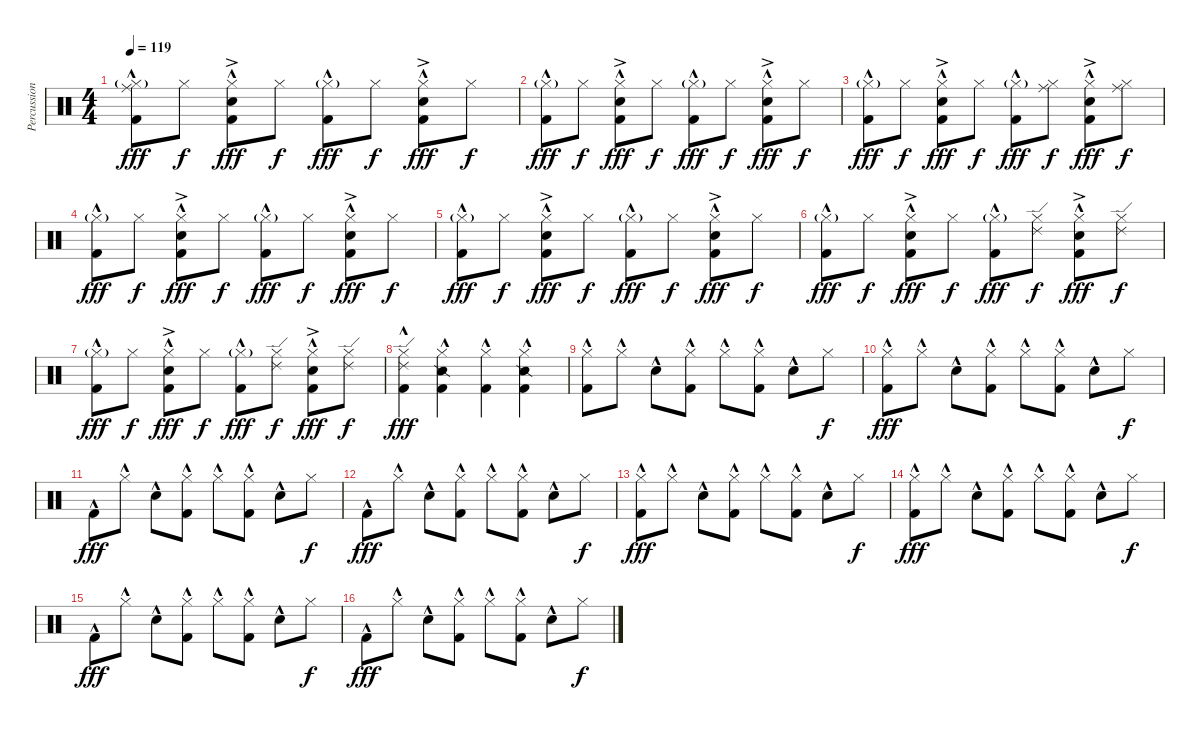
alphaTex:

\track ("Percussion" "Percussion") {instrument percussion}
\staff {score}
\articulation defaults
\ts (4 4)
\tempo 119
\clef neutral
\ks c
("Ride (middle)" "Hi-Hat (closed)"{g} "Kick (hit) 2"{hac}).8{dy fff} "Hi-Hat (closed)".8{dy f} ("Hi-Hat (closed)"{hac} "Electric Snare (hit)"{ac} "Kick (hit) 2"{hac}).8{dy fff} "Hi-Hat (closed)".8{dy f} ("Hi-Hat (closed)"{g} "Kick (hit) 2"{hac}).8{dy fff} "Hi-Hat (closed)".8{dy f} ("Hi-Hat (closed)"{hac} "Electric Snare (hit)"{ac} "Kick (hit) 2"{hac}).8{dy fff} "Hi-Hat (closed)".8{dy f} |
("Hi-Hat (closed)"{g} "Kick (hit) 2"{hac}).8{dy fff} "Hi-Hat (closed)".8{dy f} ("Hi-Hat (closed)"{hac} "Electric Snare (hit)"{ac} "Kick (hit) 2"{hac}).8{dy fff} "Hi-Hat (closed)".8{dy f} ("Hi-Hat (closed)"{g} "Kick (hit) 2"{hac}).8{dy fff} "Hi-Hat (closed)".8{dy f} ("Hi-Hat (closed)"{hac} "Electric Snare (hit)"{ac} "Kick (hit) 2"{hac}).8{dy fff} "Hi-Hat (closed)".8{dy f} |
("Hi-Hat (closed)"{g} "Kick (hit) 2"{hac}).8{dy fff} "Hi-Hat (closed)".8{dy f} ("Hi-Hat (closed)"{hac} "Electric Snare (hit)"{ac} "Kick (hit) 2"{hac}).8{dy fff} "Hi-Hat (closed)".8{dy f} ("Hi-Hat (closed)"{g} "Kick (hit) 2"{hac}).8{dy fff} ("Ride (middle)" "Hi-Hat (closed)").8{dy f} ("Hi-Hat (closed)"{hac} "Electric Snare (hit)"{ac} "Kick (hit) 2"{hac}).8{dy fff} ("Ride (middle)" "Hi-Hat (closed)").8{dy f} |
("Hi-Hat (closed)"{g} "Kick (hit) 2"{hac}).8{dy fff} "Hi-Hat (closed)".8{dy f} ("Hi-Hat (closed)"{hac} "Electric Snare (hit)"{ac} "Kick (hit) 2"{hac}).8{dy fff} "Hi-Hat (closed)".8{dy f} ("Hi-Hat (closed)"{g} "Kick (hit) 2"{hac}).8{dy fff} "Hi-Hat (closed)".8{dy f} ("Hi-Hat (closed)"{hac} "Electric Snare (hit)"{ac} "Kick (hit) 2"{hac}).8{dy fff} "Hi-Hat (closed)".8{dy f} |
("Hi-Hat (closed)"{g} "Kick (hit) 2"{hac}).8{dy fff} "Hi-Hat (closed)".8{dy f} ("Hi-Hat (closed)"{hac} "Electric Snare (hit)"{ac} "Kick (hit) 2"{hac}).8{dy fff} "Hi-Hat (closed)".8{dy f} ("Hi-Hat (closed)"{g} "Kick (hit) 2"{hac}).8{dy fff} "Hi-Hat (closed)".8{dy f} ("Hi-Hat (closed)"{hac} "Electric Snare (hit)"{ac} "Kick (hit) 2"{hac}).8{dy fff} "Hi-Hat (closed)".8{dy f} |
("Hi-Hat (closed)"{g} "Kick (hit) 2"{hac}).8{dy fff} "Hi-Hat (closed)".8{dy f} ("Hi-Hat (closed)"{hac} "Electric Snare (hit)"{ac} "Kick (hit) 2"{hac}).8{dy fff} "Hi-Hat (closed)".8{dy f} ("Hi-Hat (closed)"{g} "Kick (hit) 2"{hac}).8{dy fff} ("Ride (edge) 2" "Hi-Hat (closed)").8{dy f} ("Hi-Hat (closed)"{hac} "Electric Snare (hit)"{ac} "Kick (hit) 2"{hac}).8{dy fff} ("Ride (edge) 2" "Hi-Hat (closed)").8{dy f} |
("Hi-Hat (closed)"{g} "Kick (hit) 2"{hac}).8{dy fff} "Hi-Hat (closed)".8{dy f} ("Hi-Hat (closed)"{hac} "Electric Snare (hit)"{ac} "Kick (hit) 2"{hac}).8{dy fff} "Hi-Hat (closed)".8{dy f} ("Hi-Hat (closed)"{g} "Kick (hit) 2"{hac}).8{dy fff} ("Ride (edge) 2" "Hi-Hat (closed)").8{dy f} ("Hi-Hat (closed)"{hac} "Electric Snare (hit)"{ac} "Kick (hit) 2"{hac}).8{dy fff} ("Ride (edge) 2" "Hi-Hat (closed)").8{dy f} |
("Ride (edge) 2" "Hi-Hat (closed)" "Kick (hit) 2"{hac}).4{dy fff} ("Snare (side stick) 2"{hac} "Hi-Hat (closed)"{hac} "Kick (hit) 2"{hac}).4 ("Hi-Hat (closed)" "Kick (hit) 2"{hac}).4 ("Snare (side stick) 2"{hac} "Hi-Hat (closed)"{hac} "Kick (hit) 2"{hac}).4 |
("Hi-Hat (closed)" "Kick (hit) 2"{hac}).8 "Hi-Hat (closed)"{hac}.8 "Electric Snare (hit)"{hac}.8 ("Hi-Hat (closed)"{hac} "Kick (hit) 2"{hac}).8 "Hi-Hat (closed)"{hac}.8 ("Hi-Hat (closed)"{hac} "Kick (hit) 2"{hac}).8 "Electric Snare (hit)"{hac}.8 "Hi-Hat (closed)".8{dy f} |
("Hi-Hat (closed)" "Kick (hit) 2"{hac}).8{dy fff} "Hi-Hat (closed)"{hac}.8 "Electric Snare (hit)"{hac}.8 ("Hi-Hat (closed)"{hac} "Kick (hit) 2"{hac}).8 "Hi-Hat (closed)"{hac}.8 ("Hi-Hat (closed)"{hac} "Kick (hit) 2"{hac}).8 "Electric Snare (hit)"{hac}.8 "Hi-Hat (closed)".8{dy f} |
"Kick (hit) 2"{hac}.8{dy fff} "Hi-Hat (closed)"{hac}.8 "Electric Snare (hit)"{hac}.8 ("Hi-Hat (closed)"{hac} "Kick (hit) 2"{hac}).8 "Hi-Hat (closed)"{hac}.8 ("Hi-Hat (closed)"{hac} "Kick (hit) 2"{hac}).8 "Electric Snare (hit)"{hac}.8 "Hi-Hat (closed)".8{dy f} |
"Kick (hit) 2"{hac}.8{dy fff} "Hi-Hat (closed)"{hac}.8 "Electric Snare (hit)"{hac}.8 ("Hi-Hat (closed)"{hac} "Kick (hit) 2"{hac}).8 "Hi-Hat (closed)"{hac}.8 ("Hi-Hat (closed)"{hac} "Kick (hit) 2"{hac}).8 "Electric Snare (hit)"{hac}.8 "Hi-Hat (closed)".8{dy f} |
("Hi-Hat (closed)" "Kick (hit) 2"{hac}).8{dy fff} "Hi-Hat (closed)"{hac}.8 "Electric Snare (hit)"{hac}.8 ("Hi-Hat (closed)"{hac} "Kick (hit) 2"{hac}).8 "Hi-Hat (closed)"{hac}.8 ("Hi-Hat (closed)"{hac} "Kick (hit) 2"{hac}).8 "Electric Snare (hit)"{hac}.8 "Hi-Hat (closed)".8{dy f} |
("Hi-Hat (closed)" "Kick (hit) 2"{hac}).8{dy fff} "Hi-Hat (closed)"{hac}.8 "Electric Snare (hit)"{hac}.8 ("Hi-Hat (closed)"{hac} "Kick (hit) 2"{hac}).8 "Hi-Hat (closed)"{hac}.8 ("Hi-Hat (closed)"{hac} "Kick (hit) 2"{hac}).8 "Electric Snare (hit)"{hac}.8 "Hi-Hat (closed)".8{dy f} |
"Kick (hit) 2"{hac}.8{dy fff} "Hi-Hat (closed)"{hac}.8 "Electric Snare (hit)"{hac}.8 ("Hi-Hat (closed)"{hac} "Kick (hit) 2"{hac}).8 "Hi-Hat (closed)"{hac}.8 ("Hi-Hat (closed)"{hac} "Kick (hit) 2"{hac}).8 "Electric Snare (hit)"{hac}.8 "Hi-Hat (closed)".8{dy f} |
"Kick (hit) 2"{hac}.8{dy fff} "Hi-Hat (closed)"{hac}.8 "Electric Snare (hit)"{hac}.8 ("Hi-Hat (closed)"{hac} "Kick (hit) 2"{hac}).8 "Hi-Hat (closed)"{hac}.8 ("Hi-Hat (closed)"{hac} "Kick (hit) 2"{hac}).8 "Electric Snare (hit)"{hac}.8 "Hi-Hat (closed)".8{dy f}
